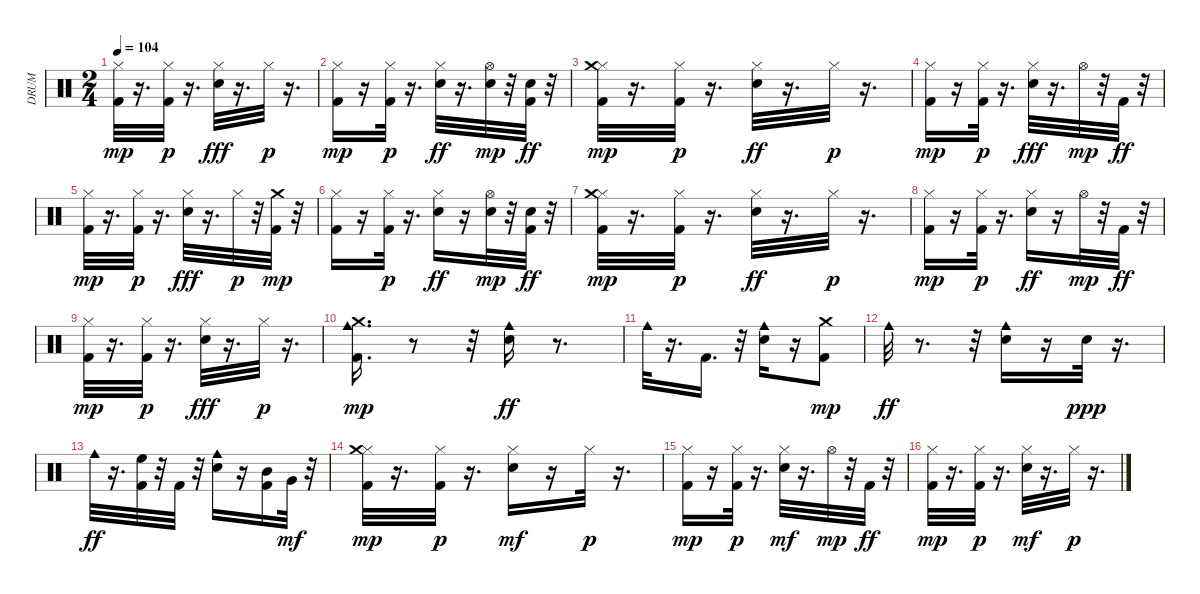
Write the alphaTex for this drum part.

\track ("DRUM    " "DRUM    ") {instrument percussion}
\staff {score}
\articulation defaults
\ts (2 4)
\tempo 104
\clef neutral
\ks c
("Kick (hit) 2" "Hi-Hat (closed)").32{dy mp} r.16{d} ("Kick (hit) 2" "Hi-Hat (closed)").32{dy p} r.16{d} ("Hi-Hat (closed)" "Snare (hit) 2").32{dy fff} r.16{d} "Hi-Hat (closed)".32{dy p} r.16{d} |
("Kick (hit) 2" "Hi-Hat (closed)").16{dy mp} r.16 ("Kick (hit) 2" "Hi-Hat (closed)").32{dy p} r.16{d} ("Hi-Hat (closed)" "Snare (hit) 2").32{dy ff} r.16{d} ("Hi-Hat (open)" "Snare (hit) 2").32{dy mp} r.32 ("Kick (hit) 2" "Snare (hit) 2").32{dy ff} r.32 |
("Kick (hit) 2" "Hi-Hat (closed)" "Crash medium (hit)").32{dy mp} r.16{d} ("Kick (hit) 2" "Hi-Hat (closed)").32{dy p} r.16{d} ("Hi-Hat (closed)" "Snare (hit) 2").32{dy ff} r.16{d} "Hi-Hat (closed)".32{dy p} r.16{d} |
("Kick (hit) 2" "Hi-Hat (closed)").16{dy mp} r.16 ("Kick (hit) 2" "Hi-Hat (closed)").32{dy p} r.16{d} ("Hi-Hat (closed)" "Snare (hit) 2").32{dy fff} r.16{d} "Hi-Hat (open)".32{dy mp} r.32 "Kick (hit) 2".32{dy ff} r.32 |
("Kick (hit) 2" "Hi-Hat (closed)").32{dy mp} r.16{d} ("Kick (hit) 2" "Hi-Hat (closed)").32{dy p} r.16{d} ("Hi-Hat (closed)" "Snare (hit) 2").32{dy fff} r.16{d} "Hi-Hat (closed)".32{dy p} r.32 ("Kick (hit) 2" "Crash medium (hit)").32{dy mp} r.32 |
("Kick (hit) 2" "Hi-Hat (closed)").16 r.16 ("Kick (hit) 2" "Hi-Hat (closed)").32{dy p} r.16{d} ("Hi-Hat (closed)" "Snare (hit) 2").16{dy ff} r.16 ("Hi-Hat (open)" "Snare (hit) 2").32{dy mp} r.32 ("Kick (hit) 2" "Snare (hit) 2").32{dy ff} r.32 |
("Kick (hit) 2" "Hi-Hat (closed)" "Crash medium (hit)").32{dy mp} r.16{d} ("Kick (hit) 2" "Hi-Hat (closed)").32{dy p} r.16{d} ("Hi-Hat (closed)" "Snare (hit) 2").32{dy ff} r.16{d} "Hi-Hat (closed)".32{dy p} r.16{d} |
("Kick (hit) 2" "Hi-Hat (closed)").16{dy mp} r.16 ("Kick (hit) 2" "Hi-Hat (closed)").32{dy p} r.16{d} ("Hi-Hat (closed)" "Snare (hit) 2").16{dy ff} r.16 "Hi-Hat (open)".32{dy mp} r.32 "Kick (hit) 2".32{dy ff} r.32 |
("Kick (hit) 2" "Hi-Hat (closed)").32{dy mp} r.16{d} ("Kick (hit) 2" "Hi-Hat (closed)").32{dy p} r.16{d} ("Hi-Hat (closed)" "Snare (hit) 2").32{dy fff} r.16{d} "Hi-Hat (closed)".32{dy p} r.16{d} |
("Kick (hit) 2" "Cowbell medium (hit)" "Crash medium (hit)").16{d dy mp} r.8 r.32 ("Snare (hit) 2" "Cowbell medium (hit)").16{dy ff} r.8{d} |
"Cowbell medium (hit)".32 r.16{d} "Kick (hit) 2".16{d} r.32 ("Cowbell medium (hit)" "Snare (hit) 2").16 r.16 ("Kick (hit) 2" "Crash medium (hit)").8{dy mp} |
"Cowbell medium (hit)".32{dy ff} r.8{d} r.32 ("Snare (hit) 2" "Cowbell medium (hit)").16 r.16 "Snare (hit) 2".32{dy ppp} r.16{d} |
"Cowbell medium (hit)".32{dy ff} r.16{d} ("Kick (hit) 2" "High Floor Tom (hit)").32 r.32 "Kick (hit) 2".32 r.32 ("Snare (hit) 2" "Cowbell medium (hit)").16 r.16 ("Kick (hit) 2" "Mid Tom (hit)").16 "Very Low Tom (hit)".32{dy mf} r.32 |
("Kick (hit) 2" "Hi-Hat (closed)" "Crash medium (hit)").32{dy mp} r.16{d} ("Kick (hit) 2" "Hi-Hat (closed)").32{dy p} r.16{d} ("Snare (hit) 2" "Hi-Hat (closed)").16{dy mf} r.16 "Hi-Hat (closed)".32{dy p} r.16{d} |
("Kick (hit) 2" "Hi-Hat (closed)").16{dy mp} r.16 ("Kick (hit) 2" "Hi-Hat (closed)").32{dy p} r.16{d} ("Snare (hit) 2" "Hi-Hat (closed)").32{dy mf} r.16{d} "Hi-Hat (open)".32{dy mp} r.32 "Kick (hit) 2".32{dy ff} r.32 |
("Kick (hit) 2" "Hi-Hat (closed)").32{dy mp} r.16{d} ("Kick (hit) 2" "Hi-Hat (closed)").32{dy p} r.16{d} ("Snare (hit) 2" "Hi-Hat (closed)").32{dy mf} r.16{d} "Hi-Hat (closed)".32{dy p} r.16{d}
